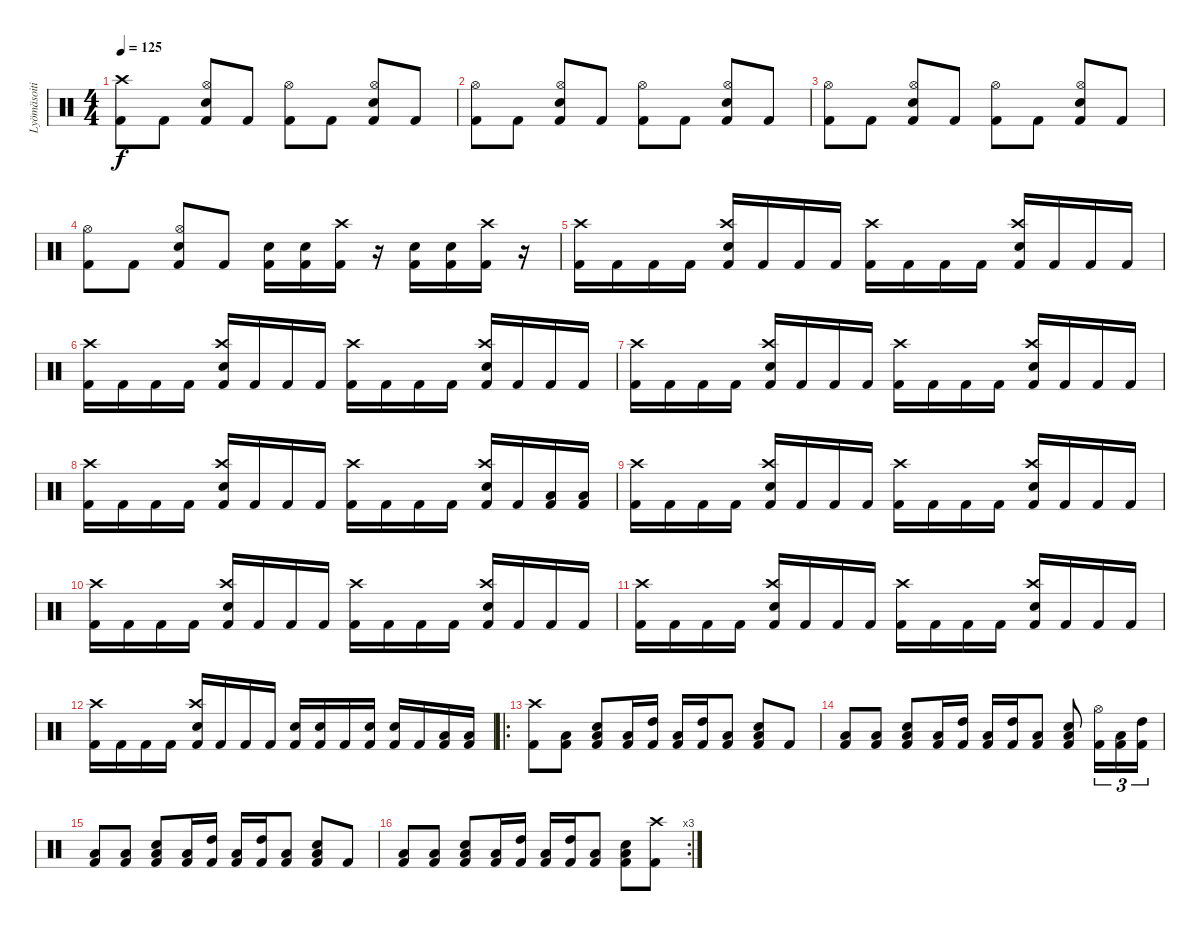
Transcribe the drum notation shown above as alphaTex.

\track ("Lyömäsoitin" "Lyömäsoiti") {instrument percussion}
\staff {score}
\articulation defaults
\ts (4 4)
\tempo 125
\clef neutral
\ks c
("Kick (hit) 2" "Crash high (hit)").8{dy f} "Kick (hit) 2".8 ("Kick (hit) 2" "Hi-Hat (open)" "Electric Snare (hit)").8 "Kick (hit) 2".8 ("Kick (hit) 2" "Hi-Hat (open)").8 "Kick (hit) 2".8 ("Kick (hit) 2" "Hi-Hat (open)" "Electric Snare (hit)").8 "Kick (hit) 2".8 |
("Kick (hit) 2" "Hi-Hat (open)").8 "Kick (hit) 2".8 ("Kick (hit) 2" "Hi-Hat (open)" "Electric Snare (hit)").8 "Kick (hit) 2".8 ("Kick (hit) 2" "Hi-Hat (open)").8 "Kick (hit) 2".8 ("Kick (hit) 2" "Hi-Hat (open)" "Electric Snare (hit)").8 "Kick (hit) 2".8 |
("Kick (hit) 2" "Hi-Hat (open)").8 "Kick (hit) 2".8 ("Kick (hit) 2" "Hi-Hat (open)" "Electric Snare (hit)").8 "Kick (hit) 2".8 ("Kick (hit) 2" "Hi-Hat (open)").8 "Kick (hit) 2".8 ("Kick (hit) 2" "Hi-Hat (open)" "Electric Snare (hit)").8 "Kick (hit) 2".8 |
("Kick (hit) 2" "Hi-Hat (open)").8 "Kick (hit) 2".8 ("Kick (hit) 2" "Hi-Hat (open)" "Electric Snare (hit)").8 "Kick (hit) 2".8 ("Electric Snare (hit)" "Kick (hit) 2").16 ("Electric Snare (hit)" "Kick (hit) 2").16 ("Crash high (hit)" "Kick (hit) 2").16 r.16 ("Electric Snare (hit)" "Kick (hit) 2").16 ("Electric Snare (hit)" "Kick (hit) 2").16 ("Crash high (hit)" "Kick (hit) 2").16 r.16 |
("Kick (hit) 2" "Crash high (hit)").16 "Kick (hit) 2".16 "Kick (hit) 2".16 "Kick (hit) 2".16 ("Kick (hit) 2" "Crash high (hit)" "Electric Snare (hit)").16 "Kick (hit) 2".16 "Kick (hit) 2".16 "Kick (hit) 2".16 ("Kick (hit) 2" "Crash high (hit)").16 "Kick (hit) 2".16 "Kick (hit) 2".16 "Kick (hit) 2".16 ("Kick (hit) 2" "Crash high (hit)" "Electric Snare (hit)").16 "Kick (hit) 2".16 "Kick (hit) 2".16 "Kick (hit) 2".16 |
("Kick (hit) 2" "Crash high (hit)").16 "Kick (hit) 2".16 "Kick (hit) 2".16 "Kick (hit) 2".16 ("Kick (hit) 2" "Crash high (hit)" "Electric Snare (hit)").16 "Kick (hit) 2".16 "Kick (hit) 2".16 "Kick (hit) 2".16 ("Kick (hit) 2" "Crash high (hit)").16 "Kick (hit) 2".16 "Kick (hit) 2".16 "Kick (hit) 2".16 ("Kick (hit) 2" "Crash high (hit)" "Electric Snare (hit)").16 "Kick (hit) 2".16 "Kick (hit) 2".16 "Kick (hit) 2".16 |
("Kick (hit) 2" "Crash high (hit)").16 "Kick (hit) 2".16 "Kick (hit) 2".16 "Kick (hit) 2".16 ("Kick (hit) 2" "Crash high (hit)" "Electric Snare (hit)").16 "Kick (hit) 2".16 "Kick (hit) 2".16 "Kick (hit) 2".16 ("Kick (hit) 2" "Crash high (hit)").16 "Kick (hit) 2".16 "Kick (hit) 2".16 "Kick (hit) 2".16 ("Kick (hit) 2" "Crash high (hit)" "Electric Snare (hit)").16 "Kick (hit) 2".16 "Kick (hit) 2".16 "Kick (hit) 2".16 |
("Kick (hit) 2" "Crash high (hit)").16 "Kick (hit) 2".16 "Kick (hit) 2".16 "Kick (hit) 2".16 ("Kick (hit) 2" "Crash high (hit)" "Electric Snare (hit)").16 "Kick (hit) 2".16 "Kick (hit) 2".16 "Kick (hit) 2".16 ("Kick (hit) 2" "Crash high (hit)").16 "Kick (hit) 2".16 "Kick (hit) 2".16 "Kick (hit) 2".16 ("Kick (hit) 2" "Crash high (hit)" "Electric Snare (hit)").16 "Kick (hit) 2".16 ("Kick (hit) 2" "Low Tom (hit)").16 ("Kick (hit) 2" "Low Tom (hit)").16 |
("Kick (hit) 2" "Crash high (hit)").16 "Kick (hit) 2".16 "Kick (hit) 2".16 "Kick (hit) 2".16 ("Kick (hit) 2" "Crash high (hit)" "Electric Snare (hit)").16 "Kick (hit) 2".16 "Kick (hit) 2".16 "Kick (hit) 2".16 ("Kick (hit) 2" "Crash high (hit)").16 "Kick (hit) 2".16 "Kick (hit) 2".16 "Kick (hit) 2".16 ("Kick (hit) 2" "Crash high (hit)" "Electric Snare (hit)").16 "Kick (hit) 2".16 "Kick (hit) 2".16 "Kick (hit) 2".16 |
("Kick (hit) 2" "Crash high (hit)").16 "Kick (hit) 2".16 "Kick (hit) 2".16 "Kick (hit) 2".16 ("Kick (hit) 2" "Crash high (hit)" "Electric Snare (hit)").16 "Kick (hit) 2".16 "Kick (hit) 2".16 "Kick (hit) 2".16 ("Kick (hit) 2" "Crash high (hit)").16 "Kick (hit) 2".16 "Kick (hit) 2".16 "Kick (hit) 2".16 ("Kick (hit) 2" "Crash high (hit)" "Electric Snare (hit)").16 "Kick (hit) 2".16 "Kick (hit) 2".16 "Kick (hit) 2".16 |
("Kick (hit) 2" "Crash high (hit)").16 "Kick (hit) 2".16 "Kick (hit) 2".16 "Kick (hit) 2".16 ("Kick (hit) 2" "Crash high (hit)" "Electric Snare (hit)").16 "Kick (hit) 2".16 "Kick (hit) 2".16 "Kick (hit) 2".16 ("Kick (hit) 2" "Crash high (hit)").16 "Kick (hit) 2".16 "Kick (hit) 2".16 "Kick (hit) 2".16 ("Kick (hit) 2" "Crash high (hit)" "Electric Snare (hit)").16 "Kick (hit) 2".16 "Kick (hit) 2".16 "Kick (hit) 2".16 |
("Kick (hit) 2" "Crash high (hit)").16 "Kick (hit) 2".16 "Kick (hit) 2".16 "Kick (hit) 2".16 ("Kick (hit) 2" "Crash high (hit)" "Electric Snare (hit)").16 "Kick (hit) 2".16 "Kick (hit) 2".16 "Kick (hit) 2".16 ("Kick (hit) 2" "Electric Snare (hit)").16 ("Kick (hit) 2" "Electric Snare (hit)").16 "Kick (hit) 2".16 ("Kick (hit) 2" "Electric Snare (hit)").16 ("Kick (hit) 2" "Electric Snare (hit)").16 "Kick (hit) 2".16 ("Kick (hit) 2" "Low Tom (hit)").16 ("Kick (hit) 2" "Low Tom (hit)").16 |
\ro
("Kick (hit) 2" "Crash high (hit)").8 ("Kick (hit) 2" "Low Tom (hit)").8 ("Kick (hit) 2" "Low Tom (hit)" "Electric Snare (hit)").8 ("Kick (hit) 2" "Low Tom (hit)").16 ("Kick (hit) 2" "High Tom (hit)").16 ("Kick (hit) 2" "Low Tom (hit)").16 ("Kick (hit) 2" "High Tom (hit)").16 ("Kick (hit) 2" "Low Tom (hit)").8 ("Kick (hit) 2" "Electric Snare (hit)" "Low Tom (hit)").8 "Kick (hit) 2".8 |
("Kick (hit) 2" "Low Tom (hit)").8 ("Kick (hit) 2" "Low Tom (hit)").8 ("Kick (hit) 2" "Low Tom (hit)" "Electric Snare (hit)").8 ("Kick (hit) 2" "Low Tom (hit)").16 ("Kick (hit) 2" "High Tom (hit)").16 ("Kick (hit) 2" "Low Tom (hit)").16 ("Kick (hit) 2" "High Tom (hit)").16 ("Kick (hit) 2" "Low Tom (hit)").8 ("Kick (hit) 2" "Electric Snare (hit)" "Low Tom (hit)").8 ("Kick (hit) 2" "Hi-Hat (open)").16{tu (3 2)} ("Kick (hit) 2" "Low Tom (hit)").16{tu (3 2)} ("Kick (hit) 2" "High Tom (hit)").16{tu (3 2)} |
("Kick (hit) 2" "Low Tom (hit)").8 ("Kick (hit) 2" "Low Tom (hit)").8 ("Kick (hit) 2" "Low Tom (hit)" "Electric Snare (hit)").8 ("Kick (hit) 2" "Low Tom (hit)").16 ("Kick (hit) 2" "High Tom (hit)").16 ("Kick (hit) 2" "Low Tom (hit)").16 ("Kick (hit) 2" "High Tom (hit)").16 ("Kick (hit) 2" "Low Tom (hit)").8 ("Kick (hit) 2" "Electric Snare (hit)" "Low Tom (hit)").8 "Kick (hit) 2".8 |
\rc 3
("Kick (hit) 2" "Low Tom (hit)").8 ("Kick (hit) 2" "Low Tom (hit)").8 ("Kick (hit) 2" "Low Tom (hit)" "Electric Snare (hit)").8 ("Kick (hit) 2" "Low Tom (hit)").16 ("Kick (hit) 2" "High Tom (hit)").16 ("Kick (hit) 2" "Low Tom (hit)").16 ("Kick (hit) 2" "High Tom (hit)").16 ("Kick (hit) 2" "Low Tom (hit)").8 ("Kick (hit) 2" "Electric Snare (hit)" "Low Tom (hit)").8 ("Kick (hit) 2" "Crash high (hit)").8
